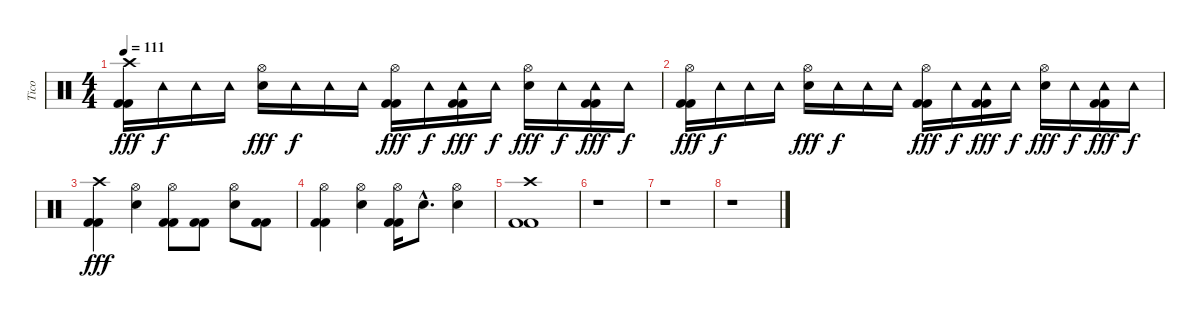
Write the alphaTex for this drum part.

\track ("Tico" "Tico") {instrument percussion}
\staff {score}
\articulation defaults
\ts (4 4)
\tempo 111
\clef neutral
\ks c
("Crash high (hit)" "Kick (hit) 2" "Kick (hit) 2").16{dy fff} "Tambourine (hit)".16{dy f} "Tambourine (hit)".16 "Tambourine (hit)".16 ("Hi-Hat (open)" "Snare (hit) 2").16{dy fff} "Tambourine (hit)".16{dy f} "Tambourine (hit)".16 "Tambourine (hit)".16 ("Hi-Hat (open)" "Kick (hit) 2" "Kick (hit) 2").16{dy fff} "Tambourine (hit)".16{dy f} ("Tambourine (hit)" "Kick (hit) 2" "Kick (hit) 2").16{dy fff} "Tambourine (hit)".16{dy f} ("Hi-Hat (open)" "Snare (hit) 2").16{dy fff} "Tambourine (hit)".16{dy f} ("Tambourine (hit)" "Kick (hit) 2" "Kick (hit) 2").16{dy fff} "Tambourine (hit)".16{dy f} |
("Hi-Hat (open)" "Kick (hit) 2" "Kick (hit) 2").16{dy fff} "Tambourine (hit)".16{dy f} "Tambourine (hit)".16 "Tambourine (hit)".16 ("Hi-Hat (open)" "Snare (hit) 2").16{dy fff} "Tambourine (hit)".16{dy f} "Tambourine (hit)".16 "Tambourine (hit)".16 ("Hi-Hat (open)" "Kick (hit) 2" "Kick (hit) 2").16{dy fff} "Tambourine (hit)".16{dy f} ("Tambourine (hit)" "Kick (hit) 2" "Kick (hit) 2").16{dy fff} "Tambourine (hit)".16{dy f} ("Hi-Hat (open)" "Snare (hit) 2").16{dy fff} "Tambourine (hit)".16{dy f} ("Tambourine (hit)" "Kick (hit) 2" "Kick (hit) 2").16{dy fff} "Tambourine (hit)".16{dy f} |
("Crash high (hit)" "Kick (hit) 2" "Kick (hit) 2").4{dy fff} ("Hi-Hat (open)" "Snare (hit) 2").4 ("Hi-Hat (open)" "Kick (hit) 2" "Kick (hit) 2").8 ("Kick (hit) 2" "Kick (hit) 2").8 ("Hi-Hat (open)" "Snare (hit) 2").8 ("Kick (hit) 2" "Kick (hit) 2").8 |
("Hi-Hat (open)" "Kick (hit) 2" "Kick (hit) 2").4 ("Hi-Hat (open)" "Snare (hit) 2").4 ("Hi-Hat (open)" "Kick (hit) 2" "Kick (hit) 2").16 "Snare (hit) 2"{hac}.8{d} ("Hi-Hat (open)" "Snare (hit) 2").4 |
("Crash high (hit)" "Kick (hit) 2" "Kick (hit) 2").1 |
r.1 |
r.1 |
r.1
